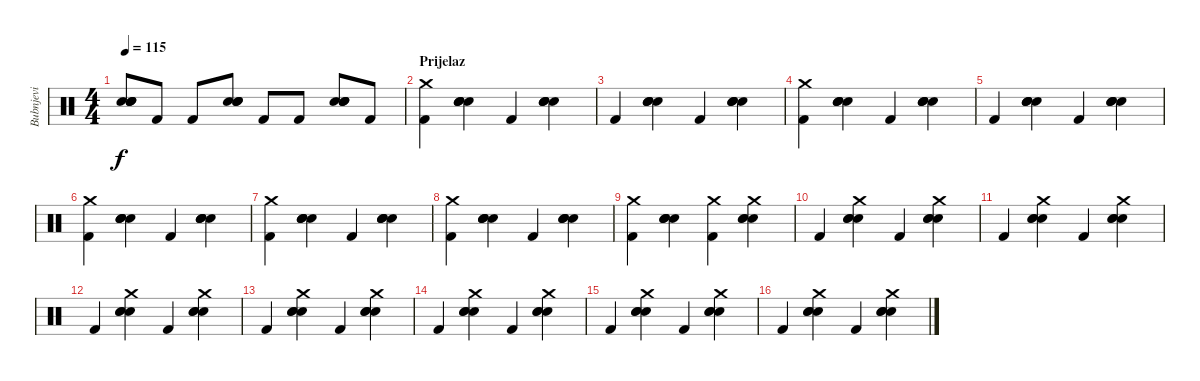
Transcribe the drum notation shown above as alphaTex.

\track ("Bubnjevi" "Bubnjevi") {instrument percussion}
\staff {score}
\articulation defaults
\ts (4 4)
\tempo 115
\clef neutral
\ks c
("Electric Snare (hit)" "Electric Snare (hit)" "Electric Snare (hit)" "Electric Snare (hit)").8{dy f} "Kick (hit) 2".8 "Kick (hit) 2".8 ("Electric Snare (hit)" "Electric Snare (hit)" "Electric Snare (hit)" "Electric Snare (hit)").8 "Kick (hit) 2".8 "Kick (hit) 2".8 ("Electric Snare (hit)" "Electric Snare (hit)" "Electric Snare (hit)" "Electric Snare (hit)").8 "Kick (hit) 2".8 |
\section ("" "Prijelaz")
("Crash medium (hit)" "Kick (hit) 2").4 ("Electric Snare (hit)" "Electric Snare (hit)" "Electric Snare (hit)" "Electric Snare (hit)").4 "Kick (hit) 2".4 ("Electric Snare (hit)" "Electric Snare (hit)" "Electric Snare (hit)" "Electric Snare (hit)").4 |
"Kick (hit) 2".4 ("Electric Snare (hit)" "Electric Snare (hit)" "Electric Snare (hit)" "Electric Snare (hit)").4 "Kick (hit) 2".4 ("Electric Snare (hit)" "Electric Snare (hit)" "Electric Snare (hit)" "Electric Snare (hit)").4 |
("Crash medium (hit)" "Kick (hit) 2").4 ("Electric Snare (hit)" "Electric Snare (hit)" "Electric Snare (hit)" "Electric Snare (hit)").4 "Kick (hit) 2".4 ("Electric Snare (hit)" "Electric Snare (hit)" "Electric Snare (hit)" "Electric Snare (hit)").4 |
"Kick (hit) 2".4 ("Electric Snare (hit)" "Electric Snare (hit)" "Electric Snare (hit)" "Electric Snare (hit)").4 "Kick (hit) 2".4 ("Electric Snare (hit)" "Electric Snare (hit)" "Electric Snare (hit)" "Electric Snare (hit)").4 |
("Crash medium (hit)" "Kick (hit) 2").4 ("Electric Snare (hit)" "Electric Snare (hit)" "Electric Snare (hit)" "Electric Snare (hit)").4 "Kick (hit) 2".4 ("Electric Snare (hit)" "Electric Snare (hit)" "Electric Snare (hit)" "Electric Snare (hit)").4 |
("Crash medium (hit)" "Kick (hit) 2").4 ("Electric Snare (hit)" "Electric Snare (hit)" "Electric Snare (hit)" "Electric Snare (hit)").4 "Kick (hit) 2".4 ("Electric Snare (hit)" "Electric Snare (hit)" "Electric Snare (hit)" "Electric Snare (hit)").4 |
("Crash medium (hit)" "Kick (hit) 2").4 ("Electric Snare (hit)" "Electric Snare (hit)" "Electric Snare (hit)" "Electric Snare (hit)").4 "Kick (hit) 2".4 ("Electric Snare (hit)" "Electric Snare (hit)" "Electric Snare (hit)" "Electric Snare (hit)").4 |
("Crash medium (hit)" "Kick (hit) 2").4 ("Electric Snare (hit)" "Electric Snare (hit)" "Electric Snare (hit)" "Electric Snare (hit)").4 ("Crash medium (hit)" "Kick (hit) 2").4 ("Electric Snare (hit)" "Electric Snare (hit)" "Crash medium (hit)" "Electric Snare (hit)").4 |
"Kick (hit) 2".4 ("Electric Snare (hit)" "Electric Snare (hit)" "Crash medium (hit)" "Electric Snare (hit)").4 "Kick (hit) 2".4 ("Electric Snare (hit)" "Electric Snare (hit)" "Crash medium (hit)" "Electric Snare (hit)").4 |
"Kick (hit) 2".4 ("Electric Snare (hit)" "Electric Snare (hit)" "Crash medium (hit)" "Electric Snare (hit)").4 "Kick (hit) 2".4 ("Electric Snare (hit)" "Electric Snare (hit)" "Crash medium (hit)" "Electric Snare (hit)").4 |
"Kick (hit) 2".4 ("Electric Snare (hit)" "Electric Snare (hit)" "Crash medium (hit)" "Electric Snare (hit)").4 "Kick (hit) 2".4 ("Electric Snare (hit)" "Electric Snare (hit)" "Crash medium (hit)" "Electric Snare (hit)").4 |
"Kick (hit) 2".4 ("Electric Snare (hit)" "Electric Snare (hit)" "Crash medium (hit)" "Electric Snare (hit)").4 "Kick (hit) 2".4 ("Electric Snare (hit)" "Electric Snare (hit)" "Crash medium (hit)" "Electric Snare (hit)").4 |
"Kick (hit) 2".4 ("Electric Snare (hit)" "Electric Snare (hit)" "Crash medium (hit)" "Electric Snare (hit)").4 "Kick (hit) 2".4 ("Electric Snare (hit)" "Electric Snare (hit)" "Crash medium (hit)" "Electric Snare (hit)").4 |
"Kick (hit) 2".4 ("Electric Snare (hit)" "Electric Snare (hit)" "Crash medium (hit)" "Electric Snare (hit)").4 "Kick (hit) 2".4 ("Electric Snare (hit)" "Electric Snare (hit)" "Crash medium (hit)" "Electric Snare (hit)").4 |
"Kick (hit) 2".4 ("Electric Snare (hit)" "Electric Snare (hit)" "Crash medium (hit)" "Electric Snare (hit)").4 "Kick (hit) 2".4 ("Electric Snare (hit)" "Electric Snare (hit)" "Crash medium (hit)" "Electric Snare (hit)").4
